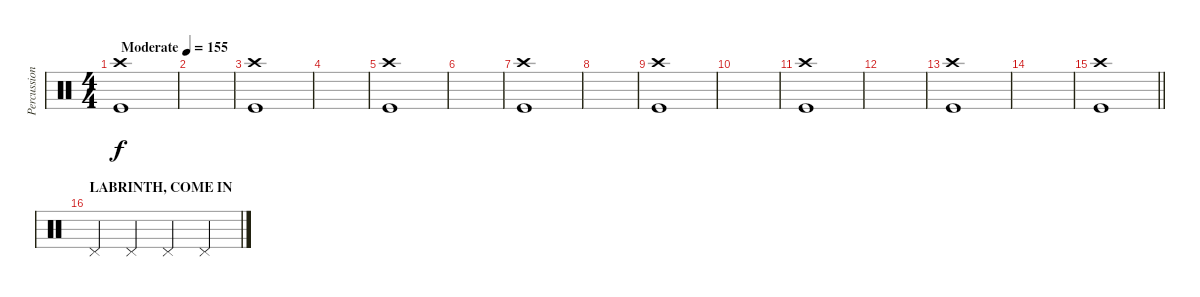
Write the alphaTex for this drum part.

\track ("Percussion" "Percussion") {instrument percussion}
\staff {score}
\articulation defaults
\ts (4 4)
\tempo (155 "Moderate")
\clef neutral
\ks c
("Crash high (hit)" "Kick (hit)").1{dy f} |
|
("Crash high (hit)" "Kick (hit)").1 |
|
("Crash high (hit)" "Kick (hit)").1 |
|
("Crash high (hit)" "Kick (hit)").1 |
|
("Crash high (hit)" "Kick (hit)").1 |
|
("Crash high (hit)" "Kick (hit)").1 |
|
("Crash high (hit)" "Kick (hit)").1 |
|
\barLineRight lightlight
("Crash high (hit)" "Kick (hit)").1 |
\section ("" "LABRINTH, COME IN")
"Pedal Hi-Hat (hit)".4 "Pedal Hi-Hat (hit)".4 "Pedal Hi-Hat (hit)".4 "Pedal Hi-Hat (hit)".4
